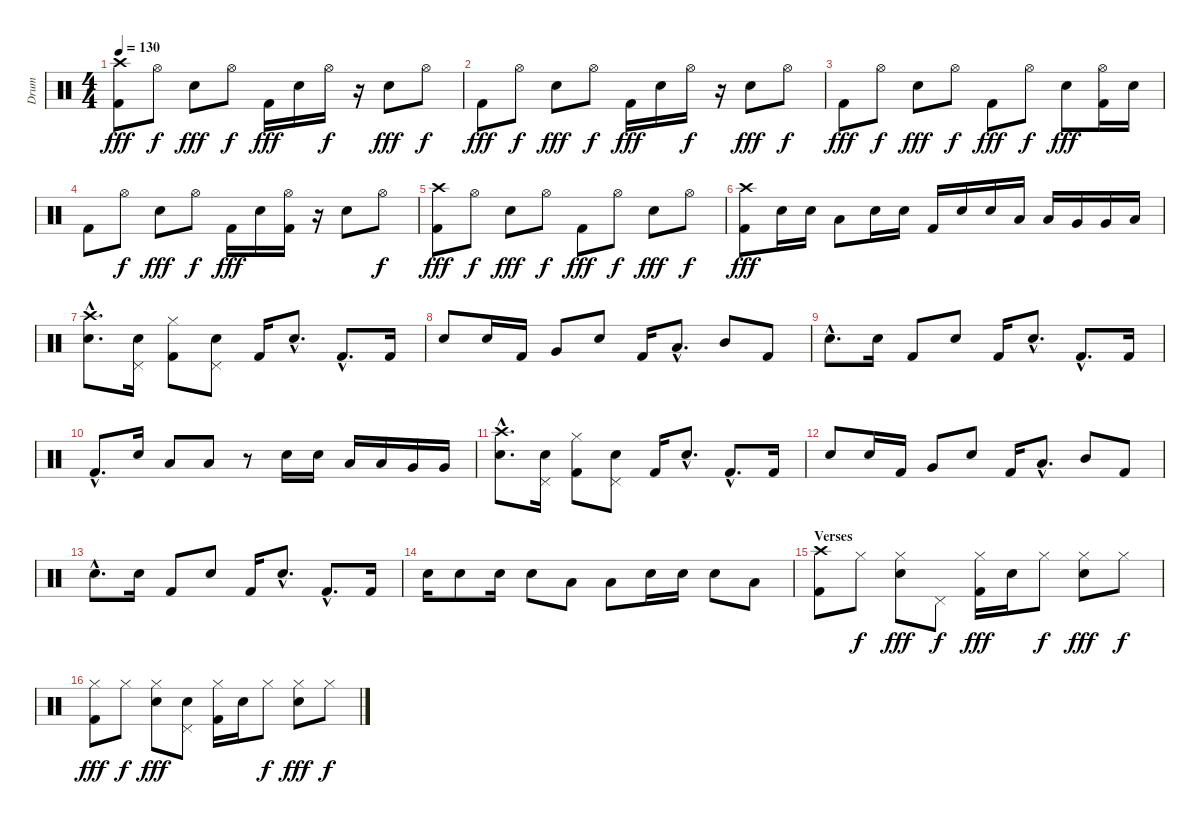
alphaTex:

\track ("Drum" "Drum") {instrument percussion}
\staff {score}
\articulation defaults
\ts (4 4)
\tempo 130
\clef neutral
\ks c
("Crash high (hit)" "Kick (hit) 2").8{dy fff} "Hi-Hat (open)".8{dy f} "Electric Snare (hit)".8{dy fff} "Hi-Hat (open)".8{dy f} "Kick (hit) 2".16{dy fff} "Electric Snare (hit)".16 "Hi-Hat (open)".16{dy f} r.16 "Electric Snare (hit)".8{dy fff} "Hi-Hat (open)".8{dy f} |
"Kick (hit) 2".8{dy fff} "Hi-Hat (open)".8{dy f} "Electric Snare (hit)".8{dy fff} "Hi-Hat (open)".8{dy f} "Kick (hit) 2".16{dy fff} "Electric Snare (hit)".16 "Hi-Hat (open)".16{dy f} r.16 "Electric Snare (hit)".8{dy fff} "Hi-Hat (open)".8{dy f} |
"Kick (hit) 2".8{dy fff} "Hi-Hat (open)".8{dy f} "Electric Snare (hit)".8{dy fff} "Hi-Hat (open)".8{dy f} "Kick (hit) 2".8{dy fff} "Hi-Hat (open)".8{dy f} "Electric Snare (hit)".8{dy fff} ("Hi-Hat (open)" "Kick (hit) 2").16 "Electric Snare (hit)".16 |
"Kick (hit) 2".8 "Hi-Hat (open)".8{dy f} "Electric Snare (hit)".8{dy fff} "Hi-Hat (open)".8{dy f} "Kick (hit) 2".16{dy fff} "Electric Snare (hit)".16 ("Hi-Hat (open)" "Kick (hit) 2").16 r.16 "Electric Snare (hit)".8 "Hi-Hat (open)".8{dy f} |
("Crash high (hit)" "Kick (hit) 2").8{dy fff} "Hi-Hat (open)".8{dy f} "Electric Snare (hit)".8{dy fff} "Hi-Hat (open)".8{dy f} "Kick (hit) 2".8{dy fff} "Hi-Hat (open)".8{dy f} "Electric Snare (hit)".8{dy fff} "Hi-Hat (open)".8{dy f} |
("Crash high (hit)" "Kick (hit) 2").8{dy fff} "Electric Snare (hit)".16 "Electric Snare (hit)".16 "Low Floor Tom (hit)".8 "Electric Snare (hit)".16 "Electric Snare (hit)".16 "Kick (hit) 2".16 "Electric Snare (hit)".16 "Electric Snare (hit)".16 "Low Tom (hit)".16 "Low Tom (hit)".16 "Very Low Tom (hit)".16 "Very Low Tom (hit)".16 "Low Floor Tom (hit)".16 |
("Crash high (hit)"{hac} "Electric Snare (hit)"{hac}).8{d} ("Pedal Hi-Hat (hit)" "Electric Snare (hit)").16 ("Hi-Hat (closed)" "Kick (hit) 2").8 ("Pedal Hi-Hat (hit)" "Electric Snare (hit)").8 "Kick (hit) 2".16 "Electric Snare (hit)"{hac}.8{d} "Kick (hit) 2"{hac}.8{d} "Kick (hit) 2".16 |
"Electric Snare (hit)".8 "Electric Snare (hit)".16 "Kick (hit) 2".16 "Very Low Tom (hit)".8 "Electric Snare (hit)".8 "Kick (hit) 2".16 "Low Tom (hit)"{hac}.8{d} "Mid Tom (hit)".8 "Kick (hit) 2".8 |
"Electric Snare (hit)"{hac}.8{d} "Electric Snare (hit)".16 "Kick (hit) 2".8 "Electric Snare (hit)".8 "Kick (hit) 2".16 "Electric Snare (hit)"{hac}.8{d} "Kick (hit) 2"{hac}.8{d} "Kick (hit) 2".16 |
"Kick (hit) 2"{hac}.8{d} "Electric Snare (hit)".16 "Low Tom (hit)".8 "Low Floor Tom (hit)".8 r.8 "Electric Snare (hit)".16 "Electric Snare (hit)".16 "Low Tom (hit)".16 "Low Tom (hit)".16 "Very Low Tom (hit)".16 "Very Low Tom (hit)".16 |
("Crash high (hit)"{hac} "Electric Snare (hit)"{hac}).8{d} ("Pedal Hi-Hat (hit)" "Electric Snare (hit)").16 ("Hi-Hat (closed)" "Kick (hit) 2").8 ("Pedal Hi-Hat (hit)" "Electric Snare (hit)").8 "Kick (hit) 2".16 "Electric Snare (hit)"{hac}.8{d} "Kick (hit) 2"{hac}.8{d} "Kick (hit) 2".16 |
"Electric Snare (hit)".8 "Electric Snare (hit)".16 "Kick (hit) 2".16 "Very Low Tom (hit)".8 "Electric Snare (hit)".8 "Kick (hit) 2".16 "Low Tom (hit)"{hac}.8{d} "Mid Tom (hit)".8 "Kick (hit) 2".8 |
"Electric Snare (hit)"{hac}.8{d} "Electric Snare (hit)".16 "Kick (hit) 2".8 "Electric Snare (hit)".8 "Kick (hit) 2".16 "Electric Snare (hit)"{hac}.8{d} "Kick (hit) 2"{hac}.8{d} "Kick (hit) 2".16 |
"Electric Snare (hit)".16 "Electric Snare (hit)".8 "Electric Snare (hit)".16 "Electric Snare (hit)".8 "Low Tom (hit)".8 "Low Floor Tom (hit)".8 "Electric Snare (hit)".16 "Electric Snare (hit)".16 "Electric Snare (hit)".8 "Low Tom (hit)".8 |
\section ("" "Verses")
("Crash high (hit)" "Kick (hit) 2").8 "Hi-Hat (closed)".8{dy f} ("Hi-Hat (closed)" "Electric Snare (hit)").8{dy fff} "Pedal Hi-Hat (hit)".8{dy f} ("Hi-Hat (closed)" "Kick (hit) 2").16{dy fff} "Electric Snare (hit)".16 "Hi-Hat (closed)".8{dy f} ("Hi-Hat (closed)" "Electric Snare (hit)").8{dy fff} "Hi-Hat (closed)".8{dy f} |
("Hi-Hat (closed)" "Kick (hit) 2").8{dy fff} "Hi-Hat (closed)".8{dy f} ("Hi-Hat (closed)" "Electric Snare (hit)").8{dy fff} ("Pedal Hi-Hat (hit)" "Electric Snare (hit)").8 ("Hi-Hat (closed)" "Kick (hit) 2").16 "Electric Snare (hit)".16 "Hi-Hat (closed)".8{dy f} ("Hi-Hat (closed)" "Electric Snare (hit)").8{dy fff} "Hi-Hat (closed)".8{dy f}
